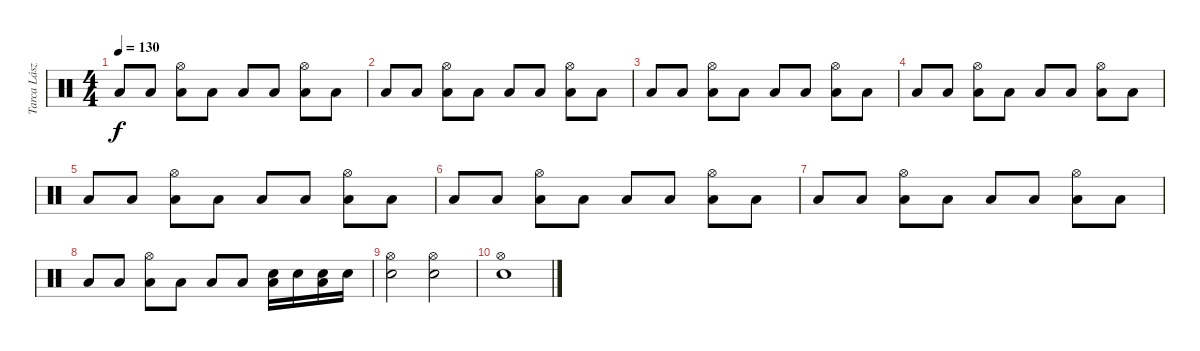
\track ("Tarca László" "Tarca Lász") {instrument percussion}
\staff {score}
\articulation defaults
\ts (4 4)
\tempo 130
\clef neutral
\ks c "Low Tom (hit)".8{dy f} "Low Tom (hit)".8
("Low Tom (hit)" "Hi-Hat (open)").8 "Low Tom (hit)".8 "Low Tom (hit)".8 "Low Tom (hit)".8 ("Low Tom (hit)" "Hi-Hat (open)").8 "Low Tom (hit)".8 |
"Low Tom (hit)".8 "Low Tom (hit)".8 ("Low Tom (hit)" "Hi-Hat (open)").8 "Low Tom (hit)".8 "Low Tom (hit)".8 "Low Tom (hit)".8 ("Low Tom (hit)" "Hi-Hat (open)").8 "Low Tom (hit)".8 |
"Low Tom (hit)".8 "Low Tom (hit)".8 ("Low Tom (hit)" "Hi-Hat (open)").8 "Low Tom (hit)".8 "Low Tom (hit)".8 "Low Tom (hit)".8 ("Low Tom (hit)" "Hi-Hat (open)").8 "Low Tom (hit)".8 |
"Low Tom (hit)".8 "Low Tom (hit)".8 ("Low Tom (hit)" "Hi-Hat (open)").8 "Low Tom (hit)".8 "Low Tom (hit)".8 "Low Tom (hit)".8 ("Low Tom (hit)" "Hi-Hat (open)").8 "Low Tom (hit)".8 |
"Low Tom (hit)".8 "Low Tom (hit)".8 ("Low Tom (hit)" "Hi-Hat (open)").8 "Low Tom (hit)".8 "Low Tom (hit)".8 "Low Tom (hit)".8 ("Low Tom (hit)" "Hi-Hat (open)").8 "Low Tom (hit)".8 |
"Low Tom (hit)".8 "Low Tom (hit)".8 ("Low Tom (hit)" "Hi-Hat (open)").8 "Low Tom (hit)".8 "Low Tom (hit)".8 "Low Tom (hit)".8 ("Low Tom (hit)" "Hi-Hat (open)").8 "Low Tom (hit)".8 |
"Low Tom (hit)".8 "Low Tom (hit)".8 ("Low Tom (hit)" "Hi-Hat (open)").8 "Low Tom (hit)".8 "Low Tom (hit)".8 "Low Tom (hit)".8 ("Low Tom (hit)" "Hi-Hat (open)").8 "Low Tom (hit)".8 |
"Low Tom (hit)".8 "Low Tom (hit)".8 ("Low Tom (hit)" "Hi-Hat (open)").8 "Low Tom (hit)".8 "Low Tom (hit)".8 "Low Tom (hit)".8 ("Snare (hit) 2" "Low Tom (hit)").16 "Snare (hit) 2".16 ("Snare (hit) 2" "Low Tom (hit)").16 "Snare (hit) 2".16 |
("Hi-Hat (open)" "Snare (hit) 2").2 ("Hi-Hat (open)" "Snare (hit) 2").2 |
("Hi-Hat (open)" "Snare (hit) 2").1
